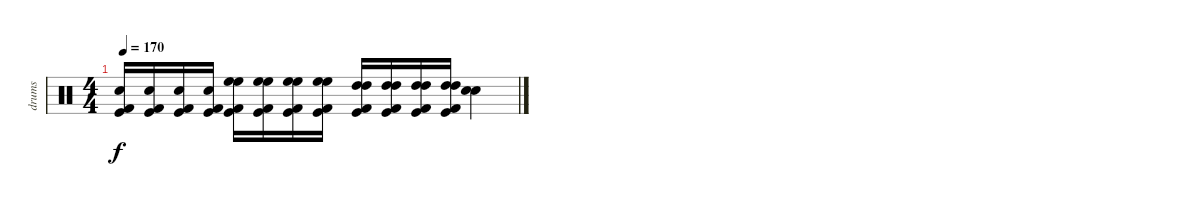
\track ("drums" "drums") {instrument percussion}
\staff {score}
\articulation defaults
\ts (4 4)
\tempo 170
\clef neutral
\ks c
("Kick (hit) 2" "Kick (hit)" "Snare (hit) 2").16{dy f} ("Kick (hit) 2" "Kick (hit)" "Snare (hit) 2").16 ("Kick (hit)" "Kick (hit) 2" "Snare (hit) 2").16 ("Kick (hit)" "Kick (hit) 2" "Snare (hit) 2").16 ("Kick (hit)" "Kick (hit) 2" "High Floor Tom (hit)" "High Floor Tom (hit)").16 ("Kick (hit)" "Kick (hit) 2" "High Floor Tom (hit)" "High Floor Tom (hit)").16 ("Kick (hit)" "Kick (hit) 2" "High Floor Tom (hit)" "High Floor Tom (hit)").16 ("Kick (hit)" "Kick (hit) 2" "High Floor Tom (hit)" "High Floor Tom (hit)").16 ("Kick (hit)" "Kick (hit) 2" "High Tom (hit)" "High Tom (hit)").16 ("Kick (hit)" "Kick (hit) 2" "High Tom (hit)" "High Tom (hit)").16 ("Kick (hit)" "Kick (hit) 2" "High Tom (hit)" "High Tom (hit)").16 ("Kick (hit)" "Kick (hit) 2" "High Tom (hit)" "High Tom (hit)").16 ("Snare (hit) 2" "Snare (hit) 2").4
